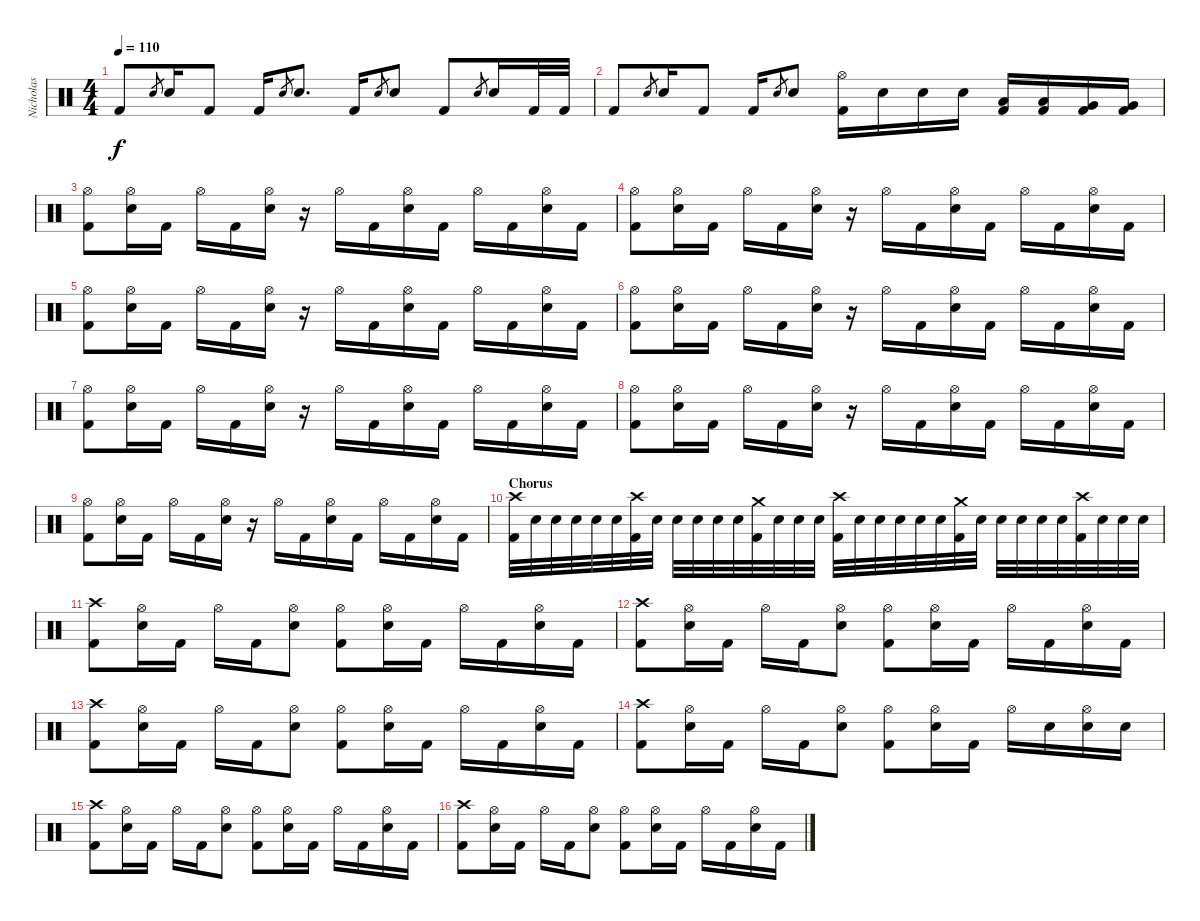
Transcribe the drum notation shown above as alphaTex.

\track ("Nicholas" "Nicholas") {instrument percussion}
\staff {score}
\articulation defaults
\ts (4 4)
\tempo 110
\clef neutral
\ks c "Kick (hit) 2".8{dy f} "Snare (hit) 2".8{gr} "Snare (hit) 2".16 "Kick (hit) 2".8 "Kick (hit) 2".16 "Snare (hit) 2".8{gr} "Snare (hit) 2".8{d} "Kick (hit) 2".16 "Snare (hit) 2".8{gr} "Snare (hit) 2".8 "Kick (hit) 2".8 "Snare (hit) 2".8{gr} "Snare (hit) 2".16 "Kick (hit) 2".32 "Kick (hit) 2".32
|
"Kick (hit) 2".8 "Snare (hit) 2".8{gr} "Snare (hit) 2".16 "Kick (hit) 2".8 "Kick (hit) 2".16 "Snare (hit) 2".8{gr} "Snare (hit) 2".8 ("Hi-Hat (open)" "Kick (hit) 2").16 "Snare (hit) 2".16 "Snare (hit) 2".16 "Snare (hit) 2".16 ("Kick (hit) 2" "Low Tom (hit)").16 ("Kick (hit) 2" "Low Tom (hit)").16 ("Kick (hit) 2" "Very Low Tom (hit)").16 ("Kick (hit) 2" "Very Low Tom (hit)").16 |
("Hi-Hat (open)" "Kick (hit) 2").8 ("Hi-Hat (open)" "Snare (hit) 2").16 "Kick (hit) 2".16 "Hi-Hat (open)".16 "Kick (hit) 2".16 ("Hi-Hat (open)" "Snare (hit) 2").16 r.16 "Hi-Hat (open)".16 "Kick (hit) 2".16 ("Hi-Hat (open)" "Snare (hit) 2").16 "Kick (hit) 2".16 "Hi-Hat (open)".16 "Kick (hit) 2".16 ("Hi-Hat (open)" "Snare (hit) 2").16 "Kick (hit) 2".16 |
("Hi-Hat (open)" "Kick (hit) 2").8 ("Hi-Hat (open)" "Snare (hit) 2").16 "Kick (hit) 2".16 "Hi-Hat (open)".16 "Kick (hit) 2".16 ("Hi-Hat (open)" "Snare (hit) 2").16 r.16 "Hi-Hat (open)".16 "Kick (hit) 2".16 ("Hi-Hat (open)" "Snare (hit) 2").16 "Kick (hit) 2".16 "Hi-Hat (open)".16 "Kick (hit) 2".16 ("Hi-Hat (open)" "Snare (hit) 2").16 "Kick (hit) 2".16 |
("Hi-Hat (open)" "Kick (hit) 2").8 ("Hi-Hat (open)" "Snare (hit) 2").16 "Kick (hit) 2".16 "Hi-Hat (open)".16 "Kick (hit) 2".16 ("Hi-Hat (open)" "Snare (hit) 2").16 r.16 "Hi-Hat (open)".16 "Kick (hit) 2".16 ("Hi-Hat (open)" "Snare (hit) 2").16 "Kick (hit) 2".16 "Hi-Hat (open)".16 "Kick (hit) 2".16 ("Hi-Hat (open)" "Snare (hit) 2").16 "Kick (hit) 2".16 |
("Hi-Hat (open)" "Kick (hit) 2").8 ("Hi-Hat (open)" "Snare (hit) 2").16 "Kick (hit) 2".16 "Hi-Hat (open)".16 "Kick (hit) 2".16 ("Hi-Hat (open)" "Snare (hit) 2").16 r.16 "Hi-Hat (open)".16 "Kick (hit) 2".16 ("Hi-Hat (open)" "Snare (hit) 2").16 "Kick (hit) 2".16 "Hi-Hat (open)".16 "Kick (hit) 2".16 ("Hi-Hat (open)" "Snare (hit) 2").16 "Kick (hit) 2".16 |
("Hi-Hat (open)" "Kick (hit) 2").8 ("Hi-Hat (open)" "Snare (hit) 2").16 "Kick (hit) 2".16 "Hi-Hat (open)".16 "Kick (hit) 2".16 ("Hi-Hat (open)" "Snare (hit) 2").16 r.16 "Hi-Hat (open)".16 "Kick (hit) 2".16 ("Hi-Hat (open)" "Snare (hit) 2").16 "Kick (hit) 2".16 "Hi-Hat (open)".16 "Kick (hit) 2".16 ("Hi-Hat (open)" "Snare (hit) 2").16 "Kick (hit) 2".16 |
("Hi-Hat (open)" "Kick (hit) 2").8 ("Hi-Hat (open)" "Snare (hit) 2").16 "Kick (hit) 2".16 "Hi-Hat (open)".16 "Kick (hit) 2".16 ("Hi-Hat (open)" "Snare (hit) 2").16 r.16 "Hi-Hat (open)".16 "Kick (hit) 2".16 ("Hi-Hat (open)" "Snare (hit) 2").16 "Kick (hit) 2".16 "Hi-Hat (open)".16 "Kick (hit) 2".16 ("Hi-Hat (open)" "Snare (hit) 2").16 "Kick (hit) 2".16 |
("Hi-Hat (open)" "Kick (hit) 2").8 ("Hi-Hat (open)" "Snare (hit) 2").16 "Kick (hit) 2".16 "Hi-Hat (open)".16 "Kick (hit) 2".16 ("Hi-Hat (open)" "Snare (hit) 2").16 r.16 "Hi-Hat (open)".16 "Kick (hit) 2".16 ("Hi-Hat (open)" "Snare (hit) 2").16 "Kick (hit) 2".16 "Hi-Hat (open)".16 "Kick (hit) 2".16 ("Hi-Hat (open)" "Snare (hit) 2").16 "Kick (hit) 2".16 |
\section ("" "Chorus")
("Crash high (hit)" "Kick (hit) 2").32 "Snare (hit) 2".32 "Snare (hit) 2".32 "Snare (hit) 2".32 "Snare (hit) 2".32 "Snare (hit) 2".32 ("Crash high (hit)" "Kick (hit) 2").32 "Snare (hit) 2".32 "Snare (hit) 2".32 "Snare (hit) 2".32 "Snare (hit) 2".32 "Snare (hit) 2".32 ("Crash medium (hit)" "Kick (hit) 2").32 "Snare (hit) 2".32 "Snare (hit) 2".32 "Snare (hit) 2".32 ("Crash high (hit)" "Kick (hit) 2").32 "Snare (hit) 2".32 "Snare (hit) 2".32 "Snare (hit) 2".32 "Snare (hit) 2".32 "Snare (hit) 2".32 ("Crash medium (hit)" "Kick (hit) 2").32 "Snare (hit) 2".32 "Snare (hit) 2".32 "Snare (hit) 2".32 "Snare (hit) 2".32 "Snare (hit) 2".32 ("Crash high (hit)" "Kick (hit) 2").32 "Snare (hit) 2".32 "Snare (hit) 2".32 "Snare (hit) 2".32 |
("Crash high (hit)" "Kick (hit) 2").8 ("Hi-Hat (open)" "Snare (hit) 2").16 "Kick (hit) 2".16 "Hi-Hat (open)".16 "Kick (hit) 2".16 ("Hi-Hat (open)" "Snare (hit) 2").8 ("Hi-Hat (open)" "Kick (hit) 2").8 ("Hi-Hat (open)" "Snare (hit) 2").16 "Kick (hit) 2".16 "Hi-Hat (open)".16 "Kick (hit) 2".16 ("Hi-Hat (open)" "Snare (hit) 2").16 "Kick (hit) 2".16 |
("Crash high (hit)" "Kick (hit) 2").8 ("Hi-Hat (open)" "Snare (hit) 2").16 "Kick (hit) 2".16 "Hi-Hat (open)".16 "Kick (hit) 2".16 ("Hi-Hat (open)" "Snare (hit) 2").8 ("Hi-Hat (open)" "Kick (hit) 2").8 ("Hi-Hat (open)" "Snare (hit) 2").16 "Kick (hit) 2".16 "Hi-Hat (open)".16 "Kick (hit) 2".16 ("Hi-Hat (open)" "Snare (hit) 2").16 "Kick (hit) 2".16 |
("Crash high (hit)" "Kick (hit) 2").8 ("Hi-Hat (open)" "Snare (hit) 2").16 "Kick (hit) 2".16 "Hi-Hat (open)".16 "Kick (hit) 2".16 ("Hi-Hat (open)" "Snare (hit) 2").8 ("Hi-Hat (open)" "Kick (hit) 2").8 ("Hi-Hat (open)" "Snare (hit) 2").16 "Kick (hit) 2".16 "Hi-Hat (open)".16 "Kick (hit) 2".16 ("Hi-Hat (open)" "Snare (hit) 2").16 "Kick (hit) 2".16 |
("Crash high (hit)" "Kick (hit) 2").8 ("Hi-Hat (open)" "Snare (hit) 2").16 "Kick (hit) 2".16 "Hi-Hat (open)".16 "Kick (hit) 2".16 ("Hi-Hat (open)" "Snare (hit) 2").8 ("Hi-Hat (open)" "Kick (hit) 2").8 ("Hi-Hat (open)" "Snare (hit) 2").16 "Kick (hit) 2".16 "Hi-Hat (open)".16 "Snare (hit) 2".16 ("Hi-Hat (open)" "Snare (hit) 2").16 "Snare (hit) 2".16 |
("Crash high (hit)" "Kick (hit) 2").8 ("Hi-Hat (open)" "Snare (hit) 2").16 "Kick (hit) 2".16 "Hi-Hat (open)".16 "Kick (hit) 2".16 ("Hi-Hat (open)" "Snare (hit) 2").8 ("Hi-Hat (open)" "Kick (hit) 2").8 ("Hi-Hat (open)" "Snare (hit) 2").16 "Kick (hit) 2".16 "Hi-Hat (open)".16 "Kick (hit) 2".16 ("Hi-Hat (open)" "Snare (hit) 2").16 "Kick (hit) 2".16 |
("Crash high (hit)" "Kick (hit) 2").8 ("Hi-Hat (open)" "Snare (hit) 2").16 "Kick (hit) 2".16 "Hi-Hat (open)".16 "Kick (hit) 2".16 ("Hi-Hat (open)" "Snare (hit) 2").8 ("Hi-Hat (open)" "Kick (hit) 2").8 ("Hi-Hat (open)" "Snare (hit) 2").16 "Kick (hit) 2".16 "Hi-Hat (open)".16 "Kick (hit) 2".16 ("Hi-Hat (open)" "Snare (hit) 2").16 "Kick (hit) 2".16
